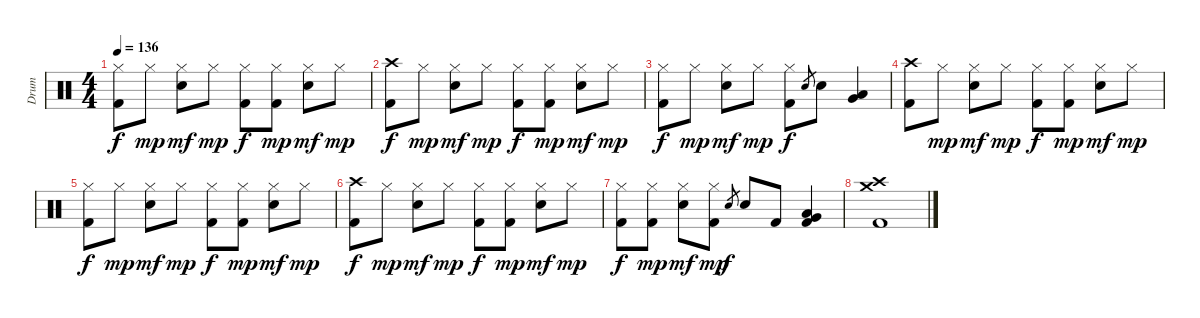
\track ("Drum" "Drum") {instrument percussion}
\staff {score}
\articulation defaults
\ts (4 4)
\tempo 136
\clef neutral
\ks c
("Hi-Hat (closed)" "Kick (hit) 2").8{dy f} "Hi-Hat (closed)".8{dy mp} ("Hi-Hat (closed)" "Snare (hit) 2").8{dy mf} "Hi-Hat (closed)".8{dy mp} ("Hi-Hat (closed)" "Kick (hit) 2").8{dy f} ("Hi-Hat (closed)" "Kick (hit) 2").8{dy mp} ("Hi-Hat (closed)" "Snare (hit) 2").8{dy mf} "Hi-Hat (closed)".8{dy mp} |
("Crash high (hit)" "Kick (hit) 2").8{dy f} "Hi-Hat (closed)".8{dy mp} ("Hi-Hat (closed)" "Snare (hit) 2").8{dy mf} "Hi-Hat (closed)".8{dy mp} ("Hi-Hat (closed)" "Kick (hit) 2").8{dy f} ("Hi-Hat (closed)" "Kick (hit) 2").8{dy mp} ("Hi-Hat (closed)" "Snare (hit) 2").8{dy mf} "Hi-Hat (closed)".8{dy mp} |
("Hi-Hat (closed)" "Kick (hit) 2").8{dy f} "Hi-Hat (closed)".8{dy mp} ("Hi-Hat (closed)" "Snare (hit) 2").8{dy mf} "Hi-Hat (closed)".8{dy mp} ("Hi-Hat (closed)" "Kick (hit) 2").8{dy f} "Snare (hit) 2".8{gr} "Snare (hit) 2".8 ("Low Tom (hit)" "Very Low Tom (hit)").4 |
("Crash high (hit)" "Kick (hit) 2").8 "Hi-Hat (closed)".8{dy mp} ("Hi-Hat (closed)" "Snare (hit) 2").8{dy mf} "Hi-Hat (closed)".8{dy mp} ("Hi-Hat (closed)" "Kick (hit) 2").8{dy f} ("Hi-Hat (closed)" "Kick (hit) 2").8{dy mp} ("Hi-Hat (closed)" "Snare (hit) 2").8{dy mf} "Hi-Hat (closed)".8{dy mp} |
("Hi-Hat (closed)" "Kick (hit) 2").8{dy f} "Hi-Hat (closed)".8{dy mp} ("Hi-Hat (closed)" "Snare (hit) 2").8{dy mf} "Hi-Hat (closed)".8{dy mp} ("Hi-Hat (closed)" "Kick (hit) 2").8{dy f} ("Hi-Hat (closed)" "Kick (hit) 2").8{dy mp} ("Hi-Hat (closed)" "Snare (hit) 2").8{dy mf} "Hi-Hat (closed)".8{dy mp} |
("Crash high (hit)" "Kick (hit) 2").8{dy f} "Hi-Hat (closed)".8{dy mp} ("Hi-Hat (closed)" "Snare (hit) 2").8{dy mf} "Hi-Hat (closed)".8{dy mp} ("Hi-Hat (closed)" "Kick (hit) 2").8{dy f} ("Hi-Hat (closed)" "Kick (hit) 2").8{dy mp} ("Hi-Hat (closed)" "Snare (hit) 2").8{dy mf} "Hi-Hat (closed)".8{dy mp} |
("Hi-Hat (closed)" "Kick (hit) 2").8{dy f} ("Hi-Hat (closed)" "Kick (hit) 2").8{dy mp} ("Hi-Hat (closed)" "Snare (hit) 2").8{dy mf} ("Hi-Hat (closed)" "Kick (hit) 2").8{dy mp} "Snare (hit) 2".8{gr dy f} "Snare (hit) 2".8 "Kick (hit) 2".8 ("Low Tom (hit)" "Very Low Tom (hit)" "Kick (hit) 2").4 |
("Crash high (hit)" "Crash medium (hit)" "Kick (hit) 2").1
